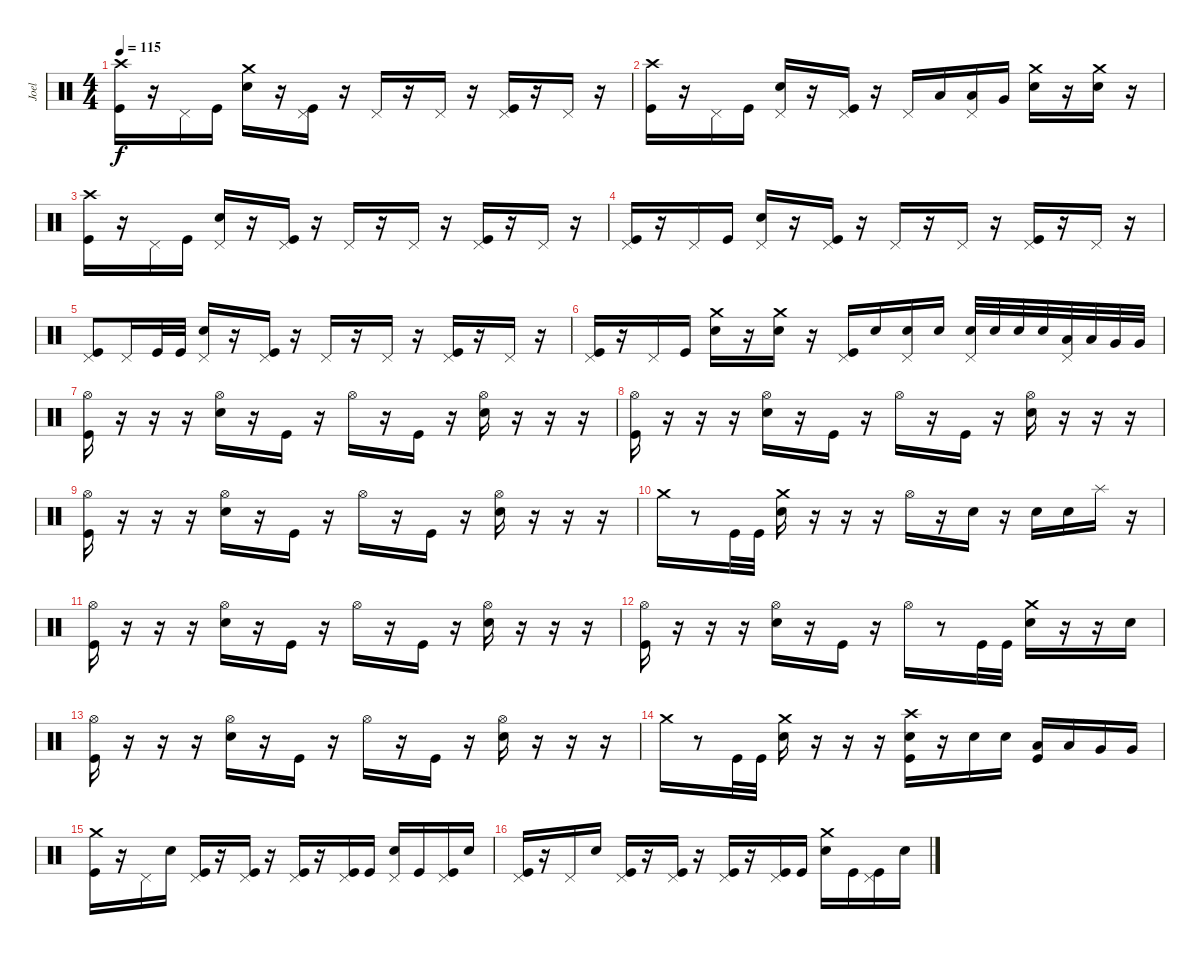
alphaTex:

\track ("Joel" "Joel") {instrument percussion}
\staff {score}
\articulation defaults
\ts (4 4)
\tempo 115
\clef neutral
\ks c
("Crash high (hit)" "Kick (hit)").16{dy f} r.16 "Pedal Hi-Hat (hit)".16 "Kick (hit)".16 ("Crash medium (hit)" "Electric Snare (hit)").16 r.16 ("Pedal Hi-Hat (hit)" "Kick (hit)").16 r.16 "Pedal Hi-Hat (hit)".16 r.16 "Pedal Hi-Hat (hit)".16 r.16 ("Pedal Hi-Hat (hit)" "Kick (hit)").16 r.16 "Pedal Hi-Hat (hit)".16 r.16 |
("Crash high (hit)" "Kick (hit)").16 r.16 "Pedal Hi-Hat (hit)".16 "Kick (hit)".16 ("Pedal Hi-Hat (hit)" "Electric Snare (hit)").16 r.16 ("Pedal Hi-Hat (hit)" "Kick (hit)").16 r.16 "Pedal Hi-Hat (hit)".16 "Low Tom (hit)".16 ("Pedal Hi-Hat (hit)" "Low Tom (hit)").16 "Very Low Tom (hit)".16 ("Crash medium (hit)" "Electric Snare (hit)").16 r.16 ("Crash medium (hit)" "Electric Snare (hit)").16 r.16 |
("Crash high (hit)" "Kick (hit)").16 r.16 "Pedal Hi-Hat (hit)".16 "Kick (hit)".16 ("Pedal Hi-Hat (hit)" "Electric Snare (hit)").16 r.16 ("Pedal Hi-Hat (hit)" "Kick (hit)").16 r.16 "Pedal Hi-Hat (hit)".16 r.16 "Pedal Hi-Hat (hit)".16 r.16 ("Pedal Hi-Hat (hit)" "Kick (hit)").16 r.16 "Pedal Hi-Hat (hit)".16 r.16 |
("Pedal Hi-Hat (hit)" "Kick (hit)").16 r.16 "Pedal Hi-Hat (hit)".16 "Kick (hit)".16 ("Pedal Hi-Hat (hit)" "Electric Snare (hit)").16 r.16 ("Pedal Hi-Hat (hit)" "Kick (hit)").16 r.16 "Pedal Hi-Hat (hit)".16 r.16 "Pedal Hi-Hat (hit)".16 r.16 ("Pedal Hi-Hat (hit)" "Kick (hit)").16 r.16 "Pedal Hi-Hat (hit)".16 r.16 |
("Pedal Hi-Hat (hit)" "Kick (hit)").8 "Pedal Hi-Hat (hit)".16 "Kick (hit)".32 "Kick (hit)".32 ("Pedal Hi-Hat (hit)" "Electric Snare (hit)").16 r.16 ("Pedal Hi-Hat (hit)" "Kick (hit)").16 r.16 "Pedal Hi-Hat (hit)".16 r.16 "Pedal Hi-Hat (hit)".16 r.16 ("Pedal Hi-Hat (hit)" "Kick (hit)").16 r.16 "Pedal Hi-Hat (hit)".16 r.16 |
("Pedal Hi-Hat (hit)" "Kick (hit)").16 r.16 "Pedal Hi-Hat (hit)".16 "Kick (hit)".16 ("Crash medium (hit)" "Electric Snare (hit)").16 r.16 ("Crash medium (hit)" "Electric Snare (hit)").16 r.16 ("Pedal Hi-Hat (hit)" "Kick (hit)").16 "Electric Snare (hit)".16 ("Pedal Hi-Hat (hit)" "Electric Snare (hit)").16 "Electric Snare (hit)".16 ("Pedal Hi-Hat (hit)" "Electric Snare (hit)").32 "Electric Snare (hit)".32 "Electric Snare (hit)".32 "Electric Snare (hit)".32 ("Pedal Hi-Hat (hit)" "Low Tom (hit)").32 "Low Tom (hit)".32 "Very Low Tom (hit)".32 "Very Low Tom (hit)".32 |
("Hi-Hat (open)" "Kick (hit)").16 r.16 r.16 r.16 ("Hi-Hat (open)" "Electric Snare (hit)").16 r.16 "Kick (hit)".16 r.16 "Hi-Hat (open)".16 r.16 "Kick (hit)".16 r.16 ("Hi-Hat (open)" "Electric Snare (hit)").16 r.16 r.16 r.16 |
("Hi-Hat (open)" "Kick (hit)").16 r.16 r.16 r.16 ("Hi-Hat (open)" "Electric Snare (hit)").16 r.16 "Kick (hit)".16 r.16 "Hi-Hat (open)".16 r.16 "Kick (hit)".16 r.16 ("Hi-Hat (open)" "Electric Snare (hit)").16 r.16 r.16 r.16 |
("Hi-Hat (open)" "Kick (hit)").16 r.16 r.16 r.16 ("Hi-Hat (open)" "Electric Snare (hit)").16 r.16 "Kick (hit)".16 r.16 "Hi-Hat (open)".16 r.16 "Kick (hit)".16 r.16 ("Hi-Hat (open)" "Electric Snare (hit)").16 r.16 r.16 r.16 |
"Crash medium (hit)".16 r.8 "Kick (hit)".32 "Kick (hit)".32 ("Crash medium (hit)" "Electric Snare (hit)").16 r.16 r.16 r.16 "Hi-Hat (open)".16 r.16 "Electric Snare (hit)".16 r.16 "Electric Snare (hit)".16 "Electric Snare (hit)".16 "Splash (hit)".16 r.16 |
("Hi-Hat (open)" "Kick (hit)").16 r.16 r.16 r.16 ("Hi-Hat (open)" "Electric Snare (hit)").16 r.16 "Kick (hit)".16 r.16 "Hi-Hat (open)".16 r.16 "Kick (hit)".16 r.16 ("Hi-Hat (open)" "Electric Snare (hit)").16 r.16 r.16 r.16 |
("Hi-Hat (open)" "Kick (hit)").16 r.16 r.16 r.16 ("Hi-Hat (open)" "Electric Snare (hit)").16 r.16 "Kick (hit)".16 r.16 "Hi-Hat (open)".16 r.8 "Kick (hit)".32 "Kick (hit)".32 ("Crash medium (hit)" "Electric Snare (hit)").16 r.16 r.16 "Electric Snare (hit)".16 |
("Hi-Hat (open)" "Kick (hit)").16 r.16 r.16 r.16 ("Hi-Hat (open)" "Electric Snare (hit)").16 r.16 "Kick (hit)".16 r.16 "Hi-Hat (open)".16 r.16 "Kick (hit)".16 r.16 ("Hi-Hat (open)" "Electric Snare (hit)").16 r.16 r.16 r.16 |
"Crash medium (hit)".16 r.8 "Kick (hit)".32 "Kick (hit)".32 ("Crash medium (hit)" "Electric Snare (hit)").16 r.16 r.16 r.16 ("Crash high (hit)" "Electric Snare (hit)" "Kick (hit)").16 r.16 "Electric Snare (hit)".16 "Electric Snare (hit)".16 ("Low Tom (hit)" "Kick (hit)").16 "Low Tom (hit)".16 "Very Low Tom (hit)".16 "Very Low Tom (hit)".16 |
("Crash medium (hit)" "Kick (hit)").16 r.16 "Pedal Hi-Hat (hit)".16 "Electric Snare (hit)".16 ("Pedal Hi-Hat (hit)" "Kick (hit)").16 r.16 ("Pedal Hi-Hat (hit)" "Kick (hit)").16 r.16 ("Pedal Hi-Hat (hit)" "Kick (hit)").16 r.16 ("Pedal Hi-Hat (hit)" "Kick (hit)").16 "Kick (hit)".16 ("Pedal Hi-Hat (hit)" "Electric Snare (hit)").16 "Kick (hit)".16 ("Pedal Hi-Hat (hit)" "Kick (hit)").16 "Electric Snare (hit)".16 |
("Pedal Hi-Hat (hit)" "Kick (hit)").16 r.16 "Pedal Hi-Hat (hit)".16 "Electric Snare (hit)".16 ("Pedal Hi-Hat (hit)" "Kick (hit)").16 r.16 ("Pedal Hi-Hat (hit)" "Kick (hit)").16 r.16 ("Pedal Hi-Hat (hit)" "Kick (hit)").16 r.16 ("Pedal Hi-Hat (hit)" "Kick (hit)").16 "Kick (hit)".16 ("Crash medium (hit)" "Electric Snare (hit)").16 "Kick (hit)".16 ("Pedal Hi-Hat (hit)" "Kick (hit)").16 "Electric Snare (hit)".16
